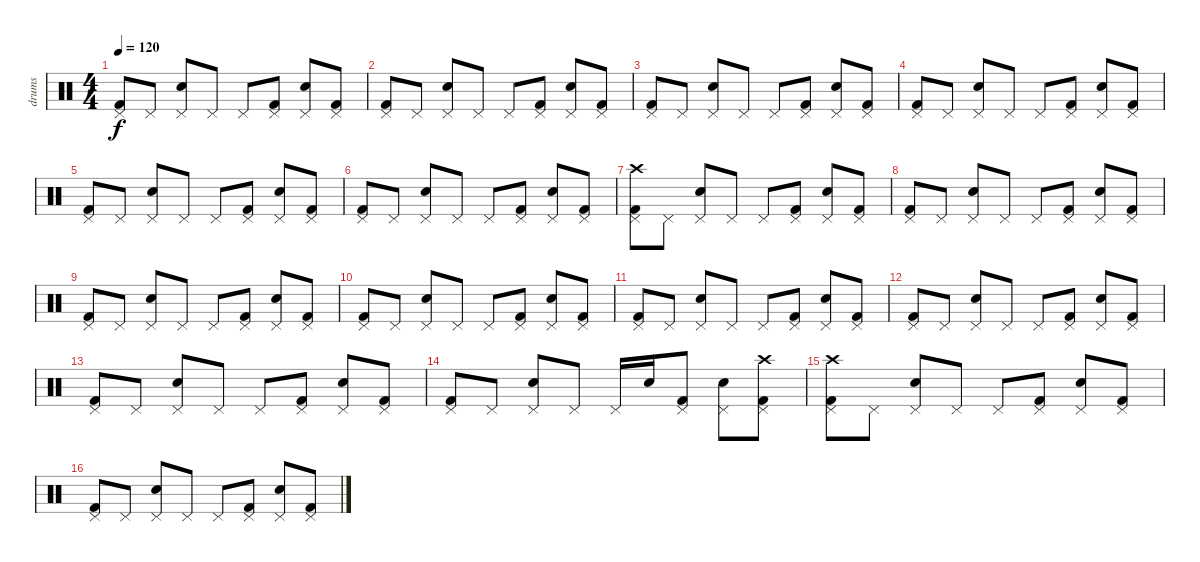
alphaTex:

\track ("drums" "drums") {instrument percussion}
\staff {score}
\articulation defaults
\ts (4 4)
\tempo 120
\clef neutral
\ks c
("Kick (hit) 2" "Pedal Hi-Hat (hit)").8{dy f} "Pedal Hi-Hat (hit)".8 ("Snare (hit) 2" "Pedal Hi-Hat (hit)").8 "Pedal Hi-Hat (hit)".8 "Pedal Hi-Hat (hit)".8 ("Kick (hit) 2" "Pedal Hi-Hat (hit)").8 ("Snare (hit) 2" "Pedal Hi-Hat (hit)").8 ("Kick (hit) 2" "Pedal Hi-Hat (hit)").8 |
("Kick (hit) 2" "Pedal Hi-Hat (hit)").8 "Pedal Hi-Hat (hit)".8 ("Snare (hit) 2" "Pedal Hi-Hat (hit)").8 "Pedal Hi-Hat (hit)".8 "Pedal Hi-Hat (hit)".8 ("Kick (hit) 2" "Pedal Hi-Hat (hit)").8 ("Snare (hit) 2" "Pedal Hi-Hat (hit)").8 ("Kick (hit) 2" "Pedal Hi-Hat (hit)").8 |
("Kick (hit) 2" "Pedal Hi-Hat (hit)").8 "Pedal Hi-Hat (hit)".8 ("Snare (hit) 2" "Pedal Hi-Hat (hit)").8 "Pedal Hi-Hat (hit)".8 "Pedal Hi-Hat (hit)".8 ("Kick (hit) 2" "Pedal Hi-Hat (hit)").8 ("Snare (hit) 2" "Pedal Hi-Hat (hit)").8 ("Kick (hit) 2" "Pedal Hi-Hat (hit)").8 |
("Kick (hit) 2" "Pedal Hi-Hat (hit)").8 "Pedal Hi-Hat (hit)".8 ("Snare (hit) 2" "Pedal Hi-Hat (hit)").8 "Pedal Hi-Hat (hit)".8 "Pedal Hi-Hat (hit)".8 ("Kick (hit) 2" "Pedal Hi-Hat (hit)").8 ("Snare (hit) 2" "Pedal Hi-Hat (hit)").8 ("Kick (hit) 2" "Pedal Hi-Hat (hit)").8 |
("Kick (hit) 2" "Pedal Hi-Hat (hit)").8 "Pedal Hi-Hat (hit)".8 ("Snare (hit) 2" "Pedal Hi-Hat (hit)").8 "Pedal Hi-Hat (hit)".8 "Pedal Hi-Hat (hit)".8 ("Kick (hit) 2" "Pedal Hi-Hat (hit)").8 ("Snare (hit) 2" "Pedal Hi-Hat (hit)").8 ("Kick (hit) 2" "Pedal Hi-Hat (hit)").8 |
("Kick (hit) 2" "Pedal Hi-Hat (hit)").8 "Pedal Hi-Hat (hit)".8 ("Snare (hit) 2" "Pedal Hi-Hat (hit)").8 "Pedal Hi-Hat (hit)".8 "Pedal Hi-Hat (hit)".8 ("Kick (hit) 2" "Pedal Hi-Hat (hit)").8 ("Snare (hit) 2" "Pedal Hi-Hat (hit)").8 ("Kick (hit) 2" "Pedal Hi-Hat (hit)").8 |
("Crash high (hit)" "Kick (hit) 2" "Pedal Hi-Hat (hit)").8 "Pedal Hi-Hat (hit)".8 ("Snare (hit) 2" "Pedal Hi-Hat (hit)").8 "Pedal Hi-Hat (hit)".8 "Pedal Hi-Hat (hit)".8 ("Kick (hit) 2" "Pedal Hi-Hat (hit)").8 ("Snare (hit) 2" "Pedal Hi-Hat (hit)").8 ("Kick (hit) 2" "Pedal Hi-Hat (hit)").8 |
("Kick (hit) 2" "Pedal Hi-Hat (hit)").8 "Pedal Hi-Hat (hit)".8 ("Snare (hit) 2" "Pedal Hi-Hat (hit)").8 "Pedal Hi-Hat (hit)".8 "Pedal Hi-Hat (hit)".8 ("Kick (hit) 2" "Pedal Hi-Hat (hit)").8 ("Snare (hit) 2" "Pedal Hi-Hat (hit)").8 ("Kick (hit) 2" "Pedal Hi-Hat (hit)").8 |
("Kick (hit) 2" "Pedal Hi-Hat (hit)").8 "Pedal Hi-Hat (hit)".8 ("Snare (hit) 2" "Pedal Hi-Hat (hit)").8 "Pedal Hi-Hat (hit)".8 "Pedal Hi-Hat (hit)".8 ("Kick (hit) 2" "Pedal Hi-Hat (hit)").8 ("Snare (hit) 2" "Pedal Hi-Hat (hit)").8 ("Kick (hit) 2" "Pedal Hi-Hat (hit)").8 |
("Kick (hit) 2" "Pedal Hi-Hat (hit)").8 "Pedal Hi-Hat (hit)".8 ("Snare (hit) 2" "Pedal Hi-Hat (hit)").8 "Pedal Hi-Hat (hit)".8 "Pedal Hi-Hat (hit)".8 ("Kick (hit) 2" "Pedal Hi-Hat (hit)").8 ("Snare (hit) 2" "Pedal Hi-Hat (hit)").8 ("Kick (hit) 2" "Pedal Hi-Hat (hit)").8 |
("Kick (hit) 2" "Pedal Hi-Hat (hit)").8 "Pedal Hi-Hat (hit)".8 ("Snare (hit) 2" "Pedal Hi-Hat (hit)").8 "Pedal Hi-Hat (hit)".8 "Pedal Hi-Hat (hit)".8 ("Kick (hit) 2" "Pedal Hi-Hat (hit)").8 ("Snare (hit) 2" "Pedal Hi-Hat (hit)").8 ("Kick (hit) 2" "Pedal Hi-Hat (hit)").8 |
("Kick (hit) 2" "Pedal Hi-Hat (hit)").8 "Pedal Hi-Hat (hit)".8 ("Snare (hit) 2" "Pedal Hi-Hat (hit)").8 "Pedal Hi-Hat (hit)".8 "Pedal Hi-Hat (hit)".8 ("Kick (hit) 2" "Pedal Hi-Hat (hit)").8 ("Snare (hit) 2" "Pedal Hi-Hat (hit)").8 ("Kick (hit) 2" "Pedal Hi-Hat (hit)").8 |
("Kick (hit) 2" "Pedal Hi-Hat (hit)").8 "Pedal Hi-Hat (hit)".8 ("Snare (hit) 2" "Pedal Hi-Hat (hit)").8 "Pedal Hi-Hat (hit)".8 "Pedal Hi-Hat (hit)".8 ("Kick (hit) 2" "Pedal Hi-Hat (hit)").8 ("Snare (hit) 2" "Pedal Hi-Hat (hit)").8 ("Kick (hit) 2" "Pedal Hi-Hat (hit)").8 |
("Kick (hit) 2" "Pedal Hi-Hat (hit)").8 "Pedal Hi-Hat (hit)".8 ("Snare (hit) 2" "Pedal Hi-Hat (hit)").8 "Pedal Hi-Hat (hit)".8 "Pedal Hi-Hat (hit)".16 "Snare (hit) 2".16 ("Kick (hit) 2" "Pedal Hi-Hat (hit)").8 ("Snare (hit) 2" "Pedal Hi-Hat (hit)").8 ("Kick (hit) 2" "Pedal Hi-Hat (hit)" "Crash high (hit)").8 |
("Kick (hit) 2" "Pedal Hi-Hat (hit)" "Crash high (hit)").8 "Pedal Hi-Hat (hit)".8 ("Snare (hit) 2" "Pedal Hi-Hat (hit)").8 "Pedal Hi-Hat (hit)".8 "Pedal Hi-Hat (hit)".8 ("Kick (hit) 2" "Pedal Hi-Hat (hit)").8 ("Snare (hit) 2" "Pedal Hi-Hat (hit)").8 ("Kick (hit) 2" "Pedal Hi-Hat (hit)").8 |
("Kick (hit) 2" "Pedal Hi-Hat (hit)").8 "Pedal Hi-Hat (hit)".8 ("Snare (hit) 2" "Pedal Hi-Hat (hit)").8 "Pedal Hi-Hat (hit)".8 "Pedal Hi-Hat (hit)".8 ("Kick (hit) 2" "Pedal Hi-Hat (hit)").8 ("Snare (hit) 2" "Pedal Hi-Hat (hit)").8 ("Kick (hit) 2" "Pedal Hi-Hat (hit)").8
